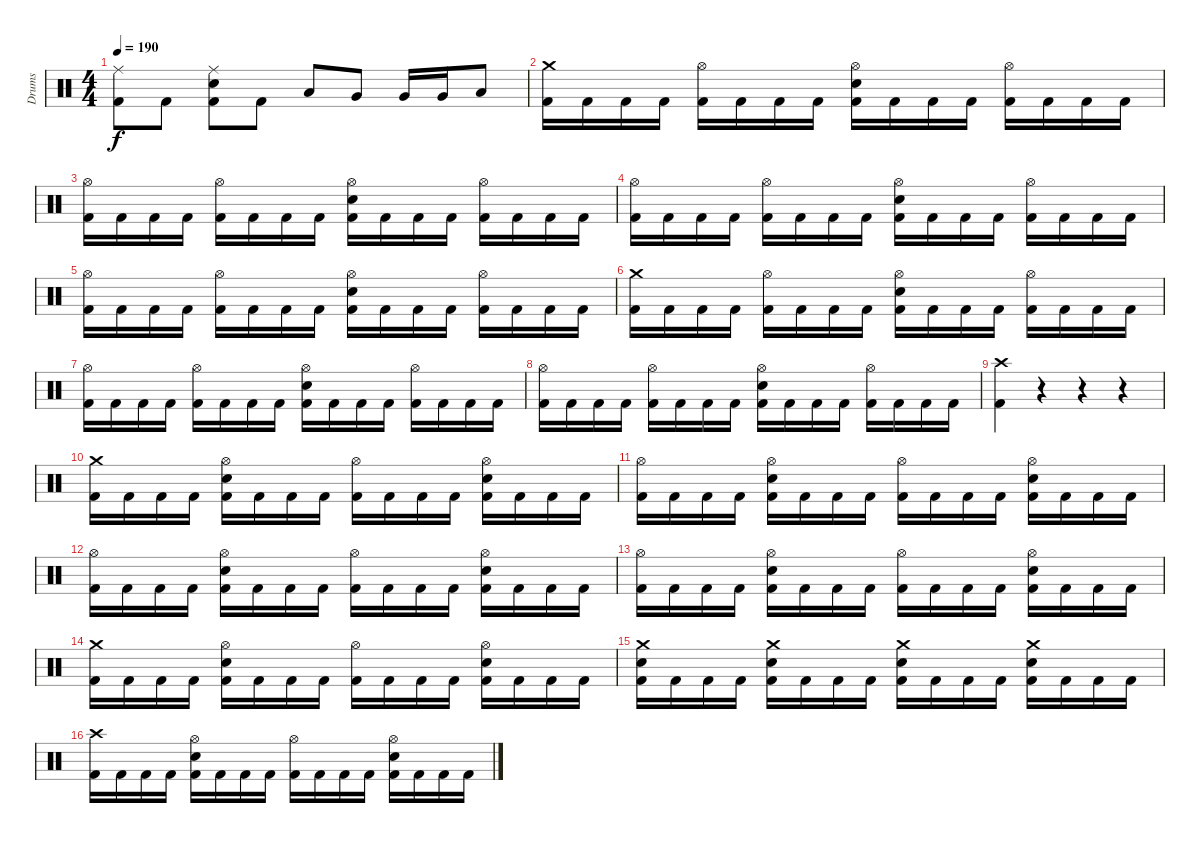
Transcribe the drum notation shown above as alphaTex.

\track ("Drums" "Drums") {instrument percussion}
\staff {score}
\articulation defaults
\ts (4 4)
\tempo 190
\clef neutral
\ks c
("Ride (middle)" "Kick (hit) 2").8{dy f} "Kick (hit) 2".8 ("Ride (middle)" "Electric Snare (hit)" "Kick (hit) 2").8 "Kick (hit) 2".8 "Low Tom (hit)".8 "Very Low Tom (hit)".8 "Very Low Tom (hit)".16 "Very Low Tom (hit)".16 "Low Floor Tom (hit)".8 |
("Crash medium (hit)" "Kick (hit) 2").16 "Kick (hit) 2".16 "Kick (hit) 2".16 "Kick (hit) 2".16 ("Hi-Hat (open)" "Kick (hit) 2").16 "Kick (hit) 2".16 "Kick (hit) 2".16 "Kick (hit) 2".16 ("Hi-Hat (open)" "Electric Snare (hit)" "Kick (hit) 2").16 "Kick (hit) 2".16 "Kick (hit) 2".16 "Kick (hit) 2".16 ("Hi-Hat (open)" "Kick (hit) 2").16 "Kick (hit) 2".16 "Kick (hit) 2".16 "Kick (hit) 2".16 |
("Hi-Hat (open)" "Kick (hit) 2").16 "Kick (hit) 2".16 "Kick (hit) 2".16 "Kick (hit) 2".16 ("Hi-Hat (open)" "Kick (hit) 2").16 "Kick (hit) 2".16 "Kick (hit) 2".16 "Kick (hit) 2".16 ("Hi-Hat (open)" "Electric Snare (hit)" "Kick (hit) 2").16 "Kick (hit) 2".16 "Kick (hit) 2".16 "Kick (hit) 2".16 ("Hi-Hat (open)" "Kick (hit) 2").16 "Kick (hit) 2".16 "Kick (hit) 2".16 "Kick (hit) 2".16 |
("Hi-Hat (open)" "Kick (hit) 2").16 "Kick (hit) 2".16 "Kick (hit) 2".16 "Kick (hit) 2".16 ("Hi-Hat (open)" "Kick (hit) 2").16 "Kick (hit) 2".16 "Kick (hit) 2".16 "Kick (hit) 2".16 ("Hi-Hat (open)" "Electric Snare (hit)" "Kick (hit) 2").16 "Kick (hit) 2".16 "Kick (hit) 2".16 "Kick (hit) 2".16 ("Hi-Hat (open)" "Kick (hit) 2").16 "Kick (hit) 2".16 "Kick (hit) 2".16 "Kick (hit) 2".16 |
("Hi-Hat (open)" "Kick (hit) 2").16 "Kick (hit) 2".16 "Kick (hit) 2".16 "Kick (hit) 2".16 ("Hi-Hat (open)" "Kick (hit) 2").16 "Kick (hit) 2".16 "Kick (hit) 2".16 "Kick (hit) 2".16 ("Hi-Hat (open)" "Electric Snare (hit)" "Kick (hit) 2").16 "Kick (hit) 2".16 "Kick (hit) 2".16 "Kick (hit) 2".16 ("Hi-Hat (open)" "Kick (hit) 2").16 "Kick (hit) 2".16 "Kick (hit) 2".16 "Kick (hit) 2".16 |
("Crash medium (hit)" "Kick (hit) 2").16 "Kick (hit) 2".16 "Kick (hit) 2".16 "Kick (hit) 2".16 ("Hi-Hat (open)" "Kick (hit) 2").16 "Kick (hit) 2".16 "Kick (hit) 2".16 "Kick (hit) 2".16 ("Hi-Hat (open)" "Electric Snare (hit)" "Kick (hit) 2").16 "Kick (hit) 2".16 "Kick (hit) 2".16 "Kick (hit) 2".16 ("Hi-Hat (open)" "Kick (hit) 2").16 "Kick (hit) 2".16 "Kick (hit) 2".16 "Kick (hit) 2".16 |
("Hi-Hat (open)" "Kick (hit) 2").16 "Kick (hit) 2".16 "Kick (hit) 2".16 "Kick (hit) 2".16 ("Hi-Hat (open)" "Kick (hit) 2").16 "Kick (hit) 2".16 "Kick (hit) 2".16 "Kick (hit) 2".16 ("Hi-Hat (open)" "Electric Snare (hit)" "Kick (hit) 2").16 "Kick (hit) 2".16 "Kick (hit) 2".16 "Kick (hit) 2".16 ("Hi-Hat (open)" "Kick (hit) 2").16 "Kick (hit) 2".16 "Kick (hit) 2".16 "Kick (hit) 2".16 |
("Hi-Hat (open)" "Kick (hit) 2").16 "Kick (hit) 2".16 "Kick (hit) 2".16 "Kick (hit) 2".16 ("Hi-Hat (open)" "Kick (hit) 2").16 "Kick (hit) 2".16 "Kick (hit) 2".16 "Kick (hit) 2".16 ("Hi-Hat (open)" "Electric Snare (hit)" "Kick (hit) 2").16 "Kick (hit) 2".16 "Kick (hit) 2".16 "Kick (hit) 2".16 ("Hi-Hat (open)" "Kick (hit) 2").16 "Kick (hit) 2".16 "Kick (hit) 2".16 "Kick (hit) 2".16 |
("Crash high (hit)" "Kick (hit) 2").4 r.4 r.4 r.4 |
("Crash medium (hit)" "Kick (hit) 2").16 "Kick (hit) 2".16 "Kick (hit) 2".16 "Kick (hit) 2".16 ("Hi-Hat (open)" "Electric Snare (hit)" "Kick (hit) 2").16 "Kick (hit) 2".16 "Kick (hit) 2".16 "Kick (hit) 2".16 ("Hi-Hat (open)" "Kick (hit) 2").16 "Kick (hit) 2".16 "Kick (hit) 2".16 "Kick (hit) 2".16 ("Hi-Hat (open)" "Electric Snare (hit)" "Kick (hit) 2").16 "Kick (hit) 2".16 "Kick (hit) 2".16 "Kick (hit) 2".16 |
("Hi-Hat (open)" "Kick (hit) 2").16 "Kick (hit) 2".16 "Kick (hit) 2".16 "Kick (hit) 2".16 ("Hi-Hat (open)" "Electric Snare (hit)" "Kick (hit) 2").16 "Kick (hit) 2".16 "Kick (hit) 2".16 "Kick (hit) 2".16 ("Hi-Hat (open)" "Kick (hit) 2").16 "Kick (hit) 2".16 "Kick (hit) 2".16 "Kick (hit) 2".16 ("Hi-Hat (open)" "Electric Snare (hit)" "Kick (hit) 2").16 "Kick (hit) 2".16 "Kick (hit) 2".16 "Kick (hit) 2".16 |
("Hi-Hat (open)" "Kick (hit) 2").16 "Kick (hit) 2".16 "Kick (hit) 2".16 "Kick (hit) 2".16 ("Hi-Hat (open)" "Electric Snare (hit)" "Kick (hit) 2").16 "Kick (hit) 2".16 "Kick (hit) 2".16 "Kick (hit) 2".16 ("Hi-Hat (open)" "Kick (hit) 2").16 "Kick (hit) 2".16 "Kick (hit) 2".16 "Kick (hit) 2".16 ("Hi-Hat (open)" "Electric Snare (hit)" "Kick (hit) 2").16 "Kick (hit) 2".16 "Kick (hit) 2".16 "Kick (hit) 2".16 |
("Hi-Hat (open)" "Kick (hit) 2").16 "Kick (hit) 2".16 "Kick (hit) 2".16 "Kick (hit) 2".16 ("Hi-Hat (open)" "Electric Snare (hit)" "Kick (hit) 2").16 "Kick (hit) 2".16 "Kick (hit) 2".16 "Kick (hit) 2".16 ("Hi-Hat (open)" "Kick (hit) 2").16 "Kick (hit) 2".16 "Kick (hit) 2".16 "Kick (hit) 2".16 ("Hi-Hat (open)" "Electric Snare (hit)" "Kick (hit) 2").16 "Kick (hit) 2".16 "Kick (hit) 2".16 "Kick (hit) 2".16 |
("Crash medium (hit)" "Kick (hit) 2").16 "Kick (hit) 2".16 "Kick (hit) 2".16 "Kick (hit) 2".16 ("Hi-Hat (open)" "Electric Snare (hit)" "Kick (hit) 2").16 "Kick (hit) 2".16 "Kick (hit) 2".16 "Kick (hit) 2".16 ("Hi-Hat (open)" "Kick (hit) 2").16 "Kick (hit) 2".16 "Kick (hit) 2".16 "Kick (hit) 2".16 ("Hi-Hat (open)" "Electric Snare (hit)" "Kick (hit) 2").16 "Kick (hit) 2".16 "Kick (hit) 2".16 "Kick (hit) 2".16 |
("Crash medium (hit)" "Electric Snare (hit)" "Kick (hit) 2").16 "Kick (hit) 2".16 "Kick (hit) 2".16 "Kick (hit) 2".16 ("Crash medium (hit)" "Electric Snare (hit)" "Kick (hit) 2").16 "Kick (hit) 2".16 "Kick (hit) 2".16 "Kick (hit) 2".16 ("Crash medium (hit)" "Electric Snare (hit)" "Kick (hit) 2").16 "Kick (hit) 2".16 "Kick (hit) 2".16 "Kick (hit) 2".16 ("Crash medium (hit)" "Electric Snare (hit)" "Kick (hit) 2").16 "Kick (hit) 2".16 "Kick (hit) 2".16 "Kick (hit) 2".16 |
("Crash high (hit)" "Kick (hit) 2").16 "Kick (hit) 2".16 "Kick (hit) 2".16 "Kick (hit) 2".16 ("Hi-Hat (open)" "Electric Snare (hit)" "Kick (hit) 2").16 "Kick (hit) 2".16 "Kick (hit) 2".16 "Kick (hit) 2".16 ("Hi-Hat (open)" "Kick (hit) 2").16 "Kick (hit) 2".16 "Kick (hit) 2".16 "Kick (hit) 2".16 ("Hi-Hat (open)" "Electric Snare (hit)" "Kick (hit) 2").16 "Kick (hit) 2".16 "Kick (hit) 2".16 "Kick (hit) 2".16
